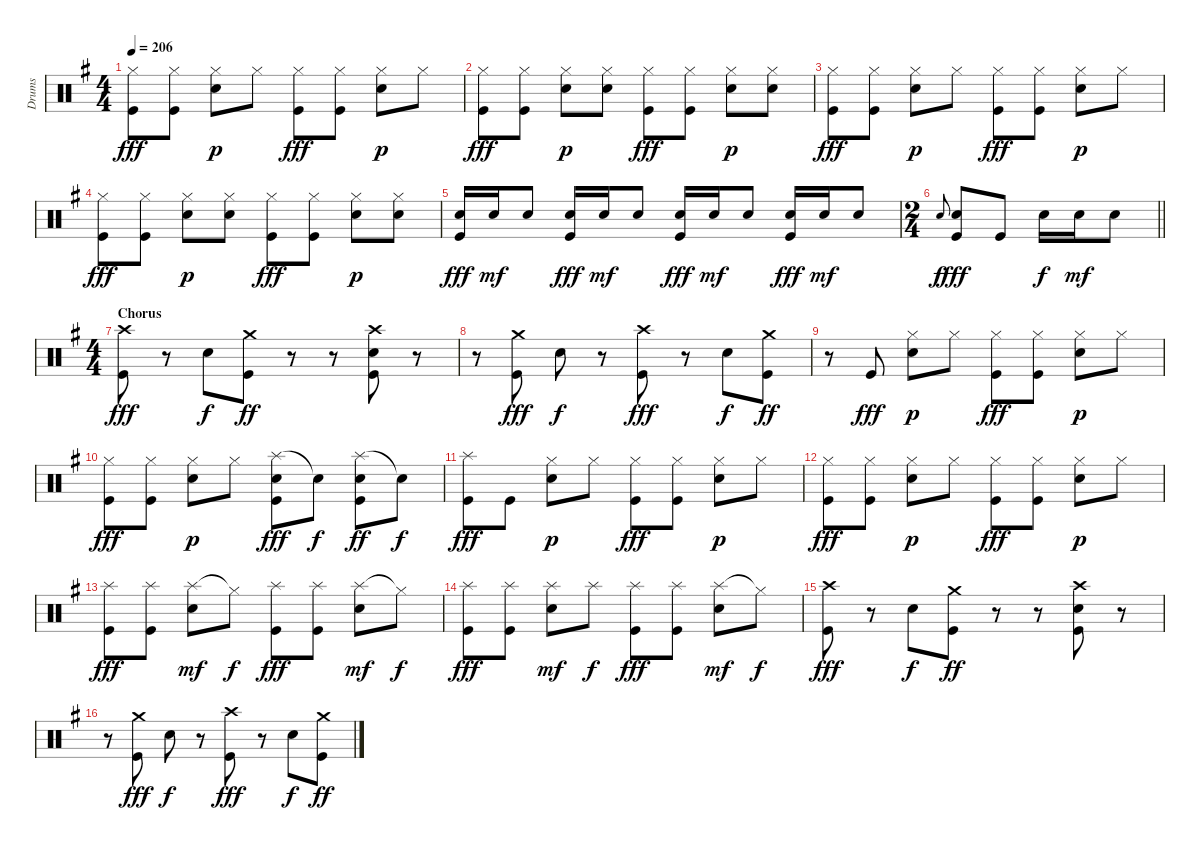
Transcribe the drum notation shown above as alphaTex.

\track ("Drums" "Drums") {instrument percussion}
\staff {score}
\articulation defaults
\ts (4 4)
\tempo 206
\clef neutral
\ks g
("Hi-Hat (closed)" "Kick (hit)").8{dy fff} ("Hi-Hat (closed)" "Kick (hit)").8 ("Hi-Hat (closed)" "Snare (hit) 2").8{dy p} "Hi-Hat (closed)".8 ("Hi-Hat (closed)" "Kick (hit)").8{dy fff} ("Hi-Hat (closed)" "Kick (hit)").8 ("Hi-Hat (closed)" "Snare (hit) 2").8{dy p} "Hi-Hat (closed)".8 |
("Hi-Hat (closed)" "Kick (hit)").8{dy fff} ("Hi-Hat (closed)" "Kick (hit)").8 ("Hi-Hat (closed)" "Snare (hit) 2").8{dy p} ("Hi-Hat (closed)" "Snare (hit) 2").8 ("Hi-Hat (closed)" "Kick (hit)").8{dy fff} ("Hi-Hat (closed)" "Kick (hit)").8 ("Hi-Hat (closed)" "Snare (hit) 2").8{dy p} ("Hi-Hat (closed)" "Snare (hit) 2").8 |
("Hi-Hat (closed)" "Kick (hit)").8{dy fff} ("Hi-Hat (closed)" "Kick (hit)").8 ("Hi-Hat (closed)" "Snare (hit) 2").8{dy p} "Hi-Hat (closed)".8 ("Hi-Hat (closed)" "Kick (hit)").8{dy fff} ("Hi-Hat (closed)" "Kick (hit)").8 ("Hi-Hat (closed)" "Snare (hit) 2").8{dy p} "Hi-Hat (closed)".8 |
("Hi-Hat (closed)" "Kick (hit)").8{dy fff} ("Hi-Hat (closed)" "Kick (hit)").8 ("Hi-Hat (closed)" "Snare (hit) 2").8{dy p} ("Hi-Hat (closed)" "Snare (hit) 2").8 ("Hi-Hat (closed)" "Kick (hit)").8{dy fff} ("Hi-Hat (closed)" "Kick (hit)").8 ("Hi-Hat (closed)" "Snare (hit) 2").8{dy p} ("Hi-Hat (closed)" "Snare (hit) 2").8 |
("Snare (hit) 2" "Kick (hit)").16{dy fff} "Snare (hit) 2".16{dy mf} "Snare (hit) 2".8 ("Snare (hit) 2" "Kick (hit)").16{dy fff} "Snare (hit) 2".16{dy mf} "Snare (hit) 2".8 ("Snare (hit) 2" "Kick (hit)").16{dy fff} "Snare (hit) 2".16{dy mf} "Snare (hit) 2".8 ("Snare (hit) 2" "Kick (hit)").16{dy fff} "Snare (hit) 2".16{dy mf} "Snare (hit) 2".8 |
\ts (2 4)
\barLineRight lightlight "Snare (hit) 2".8{gr onbeat dy f}
("Snare (hit) 2" "Kick (hit)").8{dy fff} "Kick (hit)".8 "Snare (hit) 2".16{dy f} "Snare (hit) 2".16{dy mf} "Snare (hit) 2".8 |
\ts (4 4)
\section ("" "Chorus")
("Crash high (hit)" "Kick (hit)").8{dy fff} r.8 "Snare (hit) 2".8{dy f} ("Crash medium (hit)" "Kick (hit)").8{dy ff} r.8 r.8 ("Crash high (hit)" "Snare (hit) 2" "Kick (hit)").8 r.8 |
r.8 ("Crash medium (hit)" "Kick (hit)").8{dy fff} "Snare (hit) 2".8{dy f} r.8 ("Crash high (hit)" "Kick (hit)").8{dy fff} r.8 "Snare (hit) 2".8{dy f} ("Crash medium (hit)" "Kick (hit)").8{dy ff} |
r.8 "Kick (hit)".8{dy fff} ("Hi-Hat (closed)" "Snare (hit) 2").8{dy p} "Hi-Hat (closed)".8 ("Hi-Hat (closed)" "Kick (hit)").8{dy fff} ("Hi-Hat (closed)" "Kick (hit)").8 ("Hi-Hat (closed)" "Snare (hit) 2").8{dy p} "Hi-Hat (closed)".8 |
("Hi-Hat (closed)" "Kick (hit)").8{dy fff} ("Hi-Hat (closed)" "Kick (hit)").8 ("Hi-Hat (closed)" "Snare (hit) 2").8{dy p} "Hi-Hat (closed)".8 ("Splash (hit)" "Snare (hit) 2" "Kick (hit)").8{dy fff} "Snare (hit)"{t}.8{dy f} ("Splash (hit)" "Snare (hit) 2" "Kick (hit)").8{dy ff} "Snare (hit)"{t}.8{dy f} |
("Splash (hit)" "Kick (hit)").8{dy fff} "Kick (hit)".8 ("Hi-Hat (closed)" "Snare (hit) 2").8{dy p} "Hi-Hat (closed)".8 ("Hi-Hat (closed)" "Kick (hit)").8{dy fff} ("Hi-Hat (closed)" "Kick (hit)").8 ("Hi-Hat (closed)" "Snare (hit) 2").8{dy p} "Hi-Hat (closed)".8 |
("Hi-Hat (closed)" "Kick (hit)").8{dy fff} ("Hi-Hat (closed)" "Kick (hit)").8 ("Hi-Hat (closed)" "Snare (hit) 2").8{dy p} "Hi-Hat (closed)".8 ("Hi-Hat (closed)" "Kick (hit)").8{dy fff} ("Hi-Hat (closed)" "Kick (hit)").8 ("Hi-Hat (closed)" "Snare (hit) 2").8{dy p} "Hi-Hat (closed)".8 |
("Splash (hit)" "Kick (hit)").8{dy fff} ("Splash (hit)" "Kick (hit)").8 ("Splash (hit)" "Snare (hit) 2").8{dy mf} "Hi-Hat (closed)"{t}.8{dy f} ("Splash (hit)" "Kick (hit)").8{dy fff} ("Splash (hit)" "Kick (hit)").8 ("Splash (hit)" "Snare (hit) 2").8{dy mf} "Hi-Hat (closed)"{t}.8{dy f} |
("Splash (hit)" "Kick (hit)").8{dy fff} ("Splash (hit)" "Kick (hit)").8 ("Splash (hit)" "Snare (hit) 2").8{dy mf} "Splash (hit)".8{dy f} ("Splash (hit)" "Kick (hit)").8{dy fff} ("Splash (hit)" "Kick (hit)").8 ("Splash (hit)" "Snare (hit) 2").8{dy mf} "Hi-Hat (closed)"{t}.8{dy f} |
("Crash high (hit)" "Kick (hit)").8{dy fff} r.8 "Snare (hit) 2".8{dy f} ("Crash medium (hit)" "Kick (hit)").8{dy ff} r.8 r.8 ("Crash high (hit)" "Snare (hit) 2" "Kick (hit)").8 r.8 |
r.8 ("Crash medium (hit)" "Kick (hit)").8{dy fff} "Snare (hit) 2".8{dy f} r.8 ("Crash high (hit)" "Kick (hit)").8{dy fff} r.8 "Snare (hit) 2".8{dy f} ("Crash medium (hit)" "Kick (hit)").8{dy ff}
